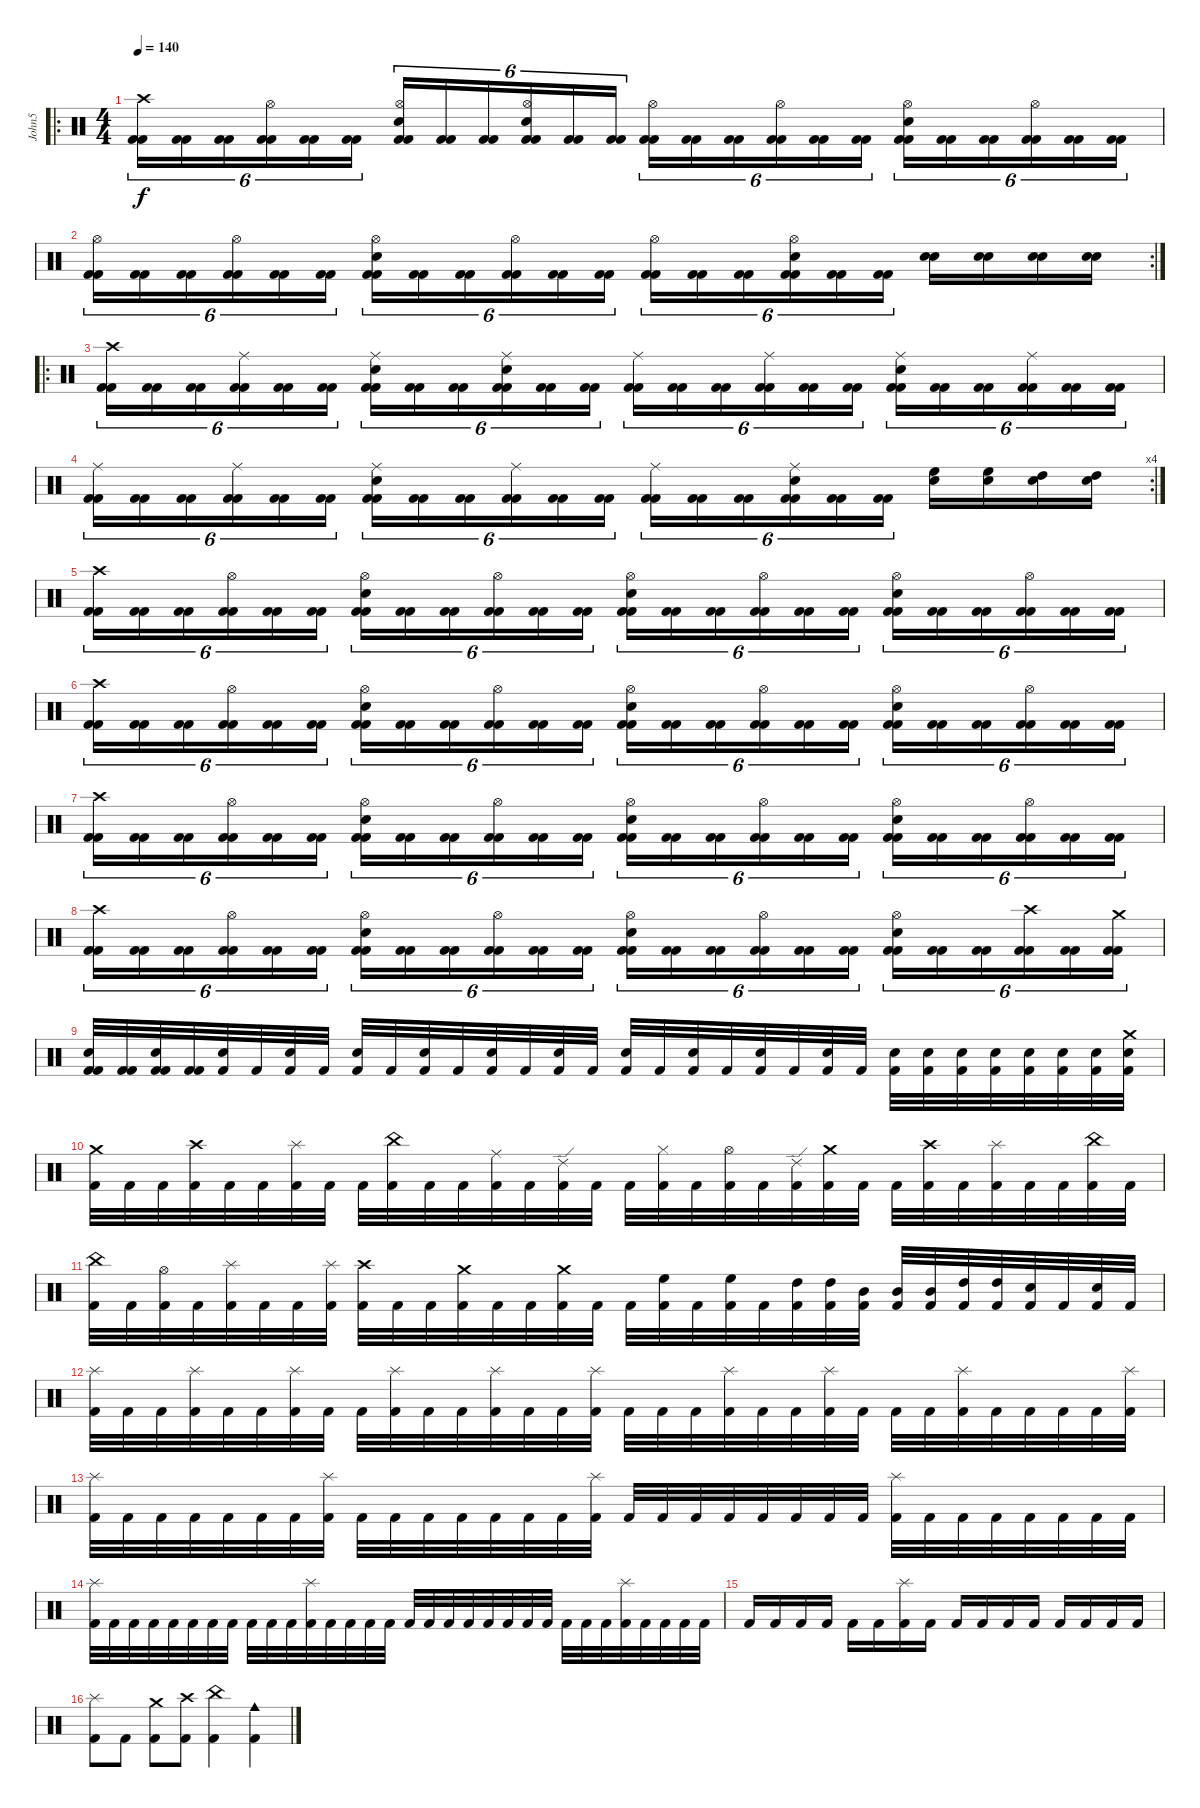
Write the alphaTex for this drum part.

\track ("John5" "John5") {instrument percussion}
\staff {score}
\articulation defaults
\ro
\ts (4 4)
\tempo 140
\clef neutral
\ks c
("Crash high (hit)" "Kick (hit) 2" "Kick (hit) 2").16{tu (6 4) dy f} ("Kick (hit) 2" "Kick (hit) 2").16{tu (6 4)} ("Kick (hit) 2" "Kick (hit) 2").16{tu (6 4)} ("Hi-Hat (open)" "Kick (hit) 2" "Kick (hit) 2").16{tu (6 4)} ("Kick (hit) 2" "Kick (hit) 2").16{tu (6 4)} ("Kick (hit) 2" "Kick (hit) 2").16{tu (6 4)} ("Hi-Hat (open)" "Electric Snare (hit)" "Kick (hit) 2" "Kick (hit) 2").16{tu (6 4)} ("Kick (hit) 2" "Kick (hit) 2").16{tu (6 4)} ("Kick (hit) 2" "Kick (hit) 2").16{tu (6 4)} ("Hi-Hat (open)" "Electric Snare (hit)" "Kick (hit) 2" "Kick (hit) 2").16{tu (6 4)} ("Kick (hit) 2" "Kick (hit) 2").16{tu (6 4)} ("Kick (hit) 2" "Kick (hit) 2").16{tu (6 4)} ("Hi-Hat (open)" "Kick (hit) 2" "Kick (hit) 2").16{tu (6 4)} ("Kick (hit) 2" "Kick (hit) 2").16{tu (6 4)} ("Kick (hit) 2" "Kick (hit) 2").16{tu (6 4)} ("Hi-Hat (open)" "Kick (hit) 2" "Kick (hit) 2").16{tu (6 4)} ("Kick (hit) 2" "Kick (hit) 2").16{tu (6 4)} ("Kick (hit) 2" "Kick (hit) 2").16{tu (6 4)} ("Hi-Hat (open)" "Electric Snare (hit)" "Kick (hit) 2" "Kick (hit) 2").16{tu (6 4)} ("Kick (hit) 2" "Kick (hit) 2").16{tu (6 4)} ("Kick (hit) 2" "Kick (hit) 2").16{tu (6 4)} ("Hi-Hat (open)" "Kick (hit) 2" "Kick (hit) 2").16{tu (6 4)} ("Kick (hit) 2" "Kick (hit) 2").16{tu (6 4)} ("Kick (hit) 2" "Kick (hit) 2").16{tu (6 4)} |
\rc 2
("Hi-Hat (open)" "Kick (hit) 2" "Kick (hit) 2").16{tu (6 4)} ("Kick (hit) 2" "Kick (hit) 2").16{tu (6 4)} ("Kick (hit) 2" "Kick (hit) 2").16{tu (6 4)} ("Hi-Hat (open)" "Kick (hit) 2" "Kick (hit) 2").16{tu (6 4)} ("Kick (hit) 2" "Kick (hit) 2").16{tu (6 4)} ("Kick (hit) 2" "Kick (hit) 2").16{tu (6 4)} ("Hi-Hat (open)" "Electric Snare (hit)" "Kick (hit) 2" "Kick (hit) 2").16{tu (6 4)} ("Kick (hit) 2" "Kick (hit) 2").16{tu (6 4)} ("Kick (hit) 2" "Kick (hit) 2").16{tu (6 4)} ("Hi-Hat (open)" "Kick (hit) 2" "Kick (hit) 2").16{tu (6 4)} ("Kick (hit) 2" "Kick (hit) 2").16{tu (6 4)} ("Kick (hit) 2" "Kick (hit) 2").16{tu (6 4)} ("Hi-Hat (open)" "Kick (hit) 2" "Kick (hit) 2").16{tu (6 4)} ("Kick (hit) 2" "Kick (hit) 2").16{tu (6 4)} ("Kick (hit) 2" "Kick (hit) 2").16{tu (6 4)} ("Hi-Hat (open)" "Electric Snare (hit)" "Kick (hit) 2" "Kick (hit) 2").16{tu (6 4)} ("Kick (hit) 2" "Kick (hit) 2").16{tu (6 4)} ("Kick (hit) 2" "Kick (hit) 2").16{tu (6 4)} ("Electric Snare (hit)" "Snare (hit)").16 ("Electric Snare (hit)" "Snare (hit)").16 ("Electric Snare (hit)" "Snare (hit)").16 ("Electric Snare (hit)" "Snare (hit)").16 |
\ro
("Crash high (hit)" "Kick (hit) 2" "Kick (hit) 2").16{tu (6 4)} ("Kick (hit) 2" "Kick (hit) 2").16{tu (6 4)} ("Kick (hit) 2" "Kick (hit) 2").16{tu (6 4)} ("Ride (middle)" "Kick (hit) 2" "Kick (hit) 2").16{tu (6 4)} ("Kick (hit) 2" "Kick (hit) 2").16{tu (6 4)} ("Kick (hit) 2" "Kick (hit) 2").16{tu (6 4)} ("Ride (middle)" "Electric Snare (hit)" "Kick (hit) 2" "Kick (hit) 2").16{tu (6 4)} ("Kick (hit) 2" "Kick (hit) 2").16{tu (6 4)} ("Kick (hit) 2" "Kick (hit) 2").16{tu (6 4)} ("Ride (middle)" "Electric Snare (hit)" "Kick (hit) 2" "Kick (hit) 2").16{tu (6 4)} ("Kick (hit) 2" "Kick (hit) 2").16{tu (6 4)} ("Kick (hit) 2" "Kick (hit) 2").16{tu (6 4)} ("Ride (middle)" "Kick (hit) 2" "Kick (hit) 2").16{tu (6 4)} ("Kick (hit) 2" "Kick (hit) 2").16{tu (6 4)} ("Kick (hit) 2" "Kick (hit) 2").16{tu (6 4)} ("Ride (middle)" "Kick (hit) 2" "Kick (hit) 2").16{tu (6 4)} ("Kick (hit) 2" "Kick (hit) 2").16{tu (6 4)} ("Kick (hit) 2" "Kick (hit) 2").16{tu (6 4)} ("Ride (middle)" "Electric Snare (hit)" "Kick (hit) 2" "Kick (hit) 2").16{tu (6 4)} ("Kick (hit) 2" "Kick (hit) 2").16{tu (6 4)} ("Kick (hit) 2" "Kick (hit) 2").16{tu (6 4)} ("Ride (middle)" "Kick (hit) 2" "Kick (hit) 2").16{tu (6 4)} ("Kick (hit) 2" "Kick (hit) 2").16{tu (6 4)} ("Kick (hit) 2" "Kick (hit) 2").16{tu (6 4)} |
\rc 4
("Ride (middle)" "Kick (hit) 2" "Kick (hit) 2").16{tu (6 4)} ("Kick (hit) 2" "Kick (hit) 2").16{tu (6 4)} ("Kick (hit) 2" "Kick (hit) 2").16{tu (6 4)} ("Ride (middle)" "Kick (hit) 2" "Kick (hit) 2").16{tu (6 4)} ("Kick (hit) 2" "Kick (hit) 2").16{tu (6 4)} ("Kick (hit) 2" "Kick (hit) 2").16{tu (6 4)} ("Ride (middle)" "Electric Snare (hit)" "Kick (hit) 2" "Kick (hit) 2").16{tu (6 4)} ("Kick (hit) 2" "Kick (hit) 2").16{tu (6 4)} ("Kick (hit) 2" "Kick (hit) 2").16{tu (6 4)} ("Ride (middle)" "Kick (hit) 2" "Kick (hit) 2").16{tu (6 4)} ("Kick (hit) 2" "Kick (hit) 2").16{tu (6 4)} ("Kick (hit) 2" "Kick (hit) 2").16{tu (6 4)} ("Ride (middle)" "Kick (hit) 2" "Kick (hit) 2").16{tu (6 4)} ("Kick (hit) 2" "Kick (hit) 2").16{tu (6 4)} ("Kick (hit) 2" "Kick (hit) 2").16{tu (6 4)} ("Ride (middle)" "Electric Snare (hit)" "Kick (hit) 2" "Kick (hit) 2").16{tu (6 4)} ("Kick (hit) 2" "Kick (hit) 2").16{tu (6 4)} ("Kick (hit) 2" "Kick (hit) 2").16{tu (6 4)} ("High Floor Tom (hit)" "Snare (hit)").16 ("High Floor Tom (hit)" "Snare (hit)").16 ("High Tom (hit)" "Snare (hit)").16 ("High Tom (hit)" "Snare (hit)").16 |
("Crash high (hit)" "Kick (hit) 2" "Kick (hit) 2").16{tu (6 4)} ("Kick (hit) 2" "Kick (hit) 2").16{tu (6 4)} ("Kick (hit) 2" "Kick (hit) 2").16{tu (6 4)} ("Hi-Hat (open)" "Kick (hit) 2" "Kick (hit) 2").16{tu (6 4)} ("Kick (hit) 2" "Kick (hit) 2").16{tu (6 4)} ("Kick (hit) 2" "Kick (hit) 2").16{tu (6 4)} ("Hi-Hat (open)" "Electric Snare (hit)" "Kick (hit) 2" "Kick (hit) 2").16{tu (6 4)} ("Kick (hit) 2" "Kick (hit) 2").16{tu (6 4)} ("Kick (hit) 2" "Kick (hit) 2").16{tu (6 4)} ("Hi-Hat (open)" "Kick (hit) 2" "Kick (hit) 2").16{tu (6 4)} ("Kick (hit) 2" "Kick (hit) 2").16{tu (6 4)} ("Kick (hit) 2" "Kick (hit) 2").16{tu (6 4)} ("Hi-Hat (open)" "Electric Snare (hit)" "Kick (hit) 2" "Kick (hit) 2").16{tu (6 4)} ("Kick (hit) 2" "Kick (hit) 2").16{tu (6 4)} ("Kick (hit) 2" "Kick (hit) 2").16{tu (6 4)} ("Hi-Hat (open)" "Kick (hit) 2" "Kick (hit) 2").16{tu (6 4)} ("Kick (hit) 2" "Kick (hit) 2").16{tu (6 4)} ("Kick (hit) 2" "Kick (hit) 2").16{tu (6 4)} ("Hi-Hat (open)" "Electric Snare (hit)" "Kick (hit) 2" "Kick (hit) 2").16{tu (6 4)} ("Kick (hit) 2" "Kick (hit) 2").16{tu (6 4)} ("Kick (hit) 2" "Kick (hit) 2").16{tu (6 4)} ("Hi-Hat (open)" "Kick (hit) 2" "Kick (hit) 2").16{tu (6 4)} ("Kick (hit) 2" "Kick (hit) 2").16{tu (6 4)} ("Kick (hit) 2" "Kick (hit) 2").16{tu (6 4)} |
("Crash high (hit)" "Kick (hit) 2" "Kick (hit) 2").16{tu (6 4)} ("Kick (hit) 2" "Kick (hit) 2").16{tu (6 4)} ("Kick (hit) 2" "Kick (hit) 2").16{tu (6 4)} ("Hi-Hat (open)" "Kick (hit) 2" "Kick (hit) 2").16{tu (6 4)} ("Kick (hit) 2" "Kick (hit) 2").16{tu (6 4)} ("Kick (hit) 2" "Kick (hit) 2").16{tu (6 4)} ("Hi-Hat (open)" "Electric Snare (hit)" "Kick (hit) 2" "Kick (hit) 2").16{tu (6 4)} ("Kick (hit) 2" "Kick (hit) 2").16{tu (6 4)} ("Kick (hit) 2" "Kick (hit) 2").16{tu (6 4)} ("Hi-Hat (open)" "Kick (hit) 2" "Kick (hit) 2").16{tu (6 4)} ("Kick (hit) 2" "Kick (hit) 2").16{tu (6 4)} ("Kick (hit) 2" "Kick (hit) 2").16{tu (6 4)} ("Hi-Hat (open)" "Electric Snare (hit)" "Kick (hit) 2" "Kick (hit) 2").16{tu (6 4)} ("Kick (hit) 2" "Kick (hit) 2").16{tu (6 4)} ("Kick (hit) 2" "Kick (hit) 2").16{tu (6 4)} ("Hi-Hat (open)" "Kick (hit) 2" "Kick (hit) 2").16{tu (6 4)} ("Kick (hit) 2" "Kick (hit) 2").16{tu (6 4)} ("Kick (hit) 2" "Kick (hit) 2").16{tu (6 4)} ("Hi-Hat (open)" "Electric Snare (hit)" "Kick (hit) 2" "Kick (hit) 2").16{tu (6 4)} ("Kick (hit) 2" "Kick (hit) 2").16{tu (6 4)} ("Kick (hit) 2" "Kick (hit) 2").16{tu (6 4)} ("Hi-Hat (open)" "Kick (hit) 2" "Kick (hit) 2").16{tu (6 4)} ("Kick (hit) 2" "Kick (hit) 2").16{tu (6 4)} ("Kick (hit) 2" "Kick (hit) 2").16{tu (6 4)} |
("Crash high (hit)" "Kick (hit) 2" "Kick (hit) 2").16{tu (6 4)} ("Kick (hit) 2" "Kick (hit) 2").16{tu (6 4)} ("Kick (hit) 2" "Kick (hit) 2").16{tu (6 4)} ("Hi-Hat (open)" "Kick (hit) 2" "Kick (hit) 2").16{tu (6 4)} ("Kick (hit) 2" "Kick (hit) 2").16{tu (6 4)} ("Kick (hit) 2" "Kick (hit) 2").16{tu (6 4)} ("Hi-Hat (open)" "Electric Snare (hit)" "Kick (hit) 2" "Kick (hit) 2").16{tu (6 4)} ("Kick (hit) 2" "Kick (hit) 2").16{tu (6 4)} ("Kick (hit) 2" "Kick (hit) 2").16{tu (6 4)} ("Hi-Hat (open)" "Kick (hit) 2" "Kick (hit) 2").16{tu (6 4)} ("Kick (hit) 2" "Kick (hit) 2").16{tu (6 4)} ("Kick (hit) 2" "Kick (hit) 2").16{tu (6 4)} ("Hi-Hat (open)" "Electric Snare (hit)" "Kick (hit) 2" "Kick (hit) 2").16{tu (6 4)} ("Kick (hit) 2" "Kick (hit) 2").16{tu (6 4)} ("Kick (hit) 2" "Kick (hit) 2").16{tu (6 4)} ("Hi-Hat (open)" "Kick (hit) 2" "Kick (hit) 2").16{tu (6 4)} ("Kick (hit) 2" "Kick (hit) 2").16{tu (6 4)} ("Kick (hit) 2" "Kick (hit) 2").16{tu (6 4)} ("Hi-Hat (open)" "Electric Snare (hit)" "Kick (hit) 2" "Kick (hit) 2").16{tu (6 4)} ("Kick (hit) 2" "Kick (hit) 2").16{tu (6 4)} ("Kick (hit) 2" "Kick (hit) 2").16{tu (6 4)} ("Hi-Hat (open)" "Kick (hit) 2" "Kick (hit) 2").16{tu (6 4)} ("Kick (hit) 2" "Kick (hit) 2").16{tu (6 4)} ("Kick (hit) 2" "Kick (hit) 2").16{tu (6 4)} |
("Crash high (hit)" "Kick (hit) 2" "Kick (hit) 2").16{tu (6 4)} ("Kick (hit) 2" "Kick (hit) 2").16{tu (6 4)} ("Kick (hit) 2" "Kick (hit) 2").16{tu (6 4)} ("Hi-Hat (open)" "Kick (hit) 2" "Kick (hit) 2").16{tu (6 4)} ("Kick (hit) 2" "Kick (hit) 2").16{tu (6 4)} ("Kick (hit) 2" "Kick (hit) 2").16{tu (6 4)} ("Hi-Hat (open)" "Electric Snare (hit)" "Kick (hit) 2" "Kick (hit) 2").16{tu (6 4)} ("Kick (hit) 2" "Kick (hit) 2").16{tu (6 4)} ("Kick (hit) 2" "Kick (hit) 2").16{tu (6 4)} ("Hi-Hat (open)" "Kick (hit) 2" "Kick (hit) 2").16{tu (6 4)} ("Kick (hit) 2" "Kick (hit) 2").16{tu (6 4)} ("Kick (hit) 2" "Kick (hit) 2").16{tu (6 4)} ("Hi-Hat (open)" "Electric Snare (hit)" "Kick (hit) 2" "Kick (hit) 2").16{tu (6 4)} ("Kick (hit) 2" "Kick (hit) 2").16{tu (6 4)} ("Kick (hit) 2" "Kick (hit) 2").16{tu (6 4)} ("Hi-Hat (open)" "Kick (hit) 2" "Kick (hit) 2").16{tu (6 4)} ("Kick (hit) 2" "Kick (hit) 2").16{tu (6 4)} ("Kick (hit) 2" "Kick (hit) 2").16{tu (6 4)} ("Hi-Hat (open)" "Electric Snare (hit)" "Kick (hit) 2" "Kick (hit) 2").16{tu (6 4)} ("Kick (hit) 2" "Kick (hit) 2").16{tu (6 4)} ("Kick (hit) 2" "Kick (hit) 2").16{tu (6 4)} ("Crash high (hit)" "Kick (hit) 2" "Kick (hit) 2").16{tu (6 4)} ("Kick (hit) 2" "Kick (hit) 2").16{tu (6 4)} ("Crash medium (hit)" "Kick (hit) 2" "Kick (hit) 2").16{tu (6 4)} |
("Electric Snare (hit)" "Kick (hit) 2" "Kick (hit) 2").32 ("Kick (hit) 2" "Kick (hit) 2").32 ("Electric Snare (hit)" "Kick (hit) 2" "Kick (hit) 2").32 ("Kick (hit) 2" "Kick (hit) 2").32 ("Electric Snare (hit)" "Kick (hit) 2").32 "Kick (hit) 2".32 ("Electric Snare (hit)" "Kick (hit) 2").32 "Kick (hit) 2".32 ("Electric Snare (hit)" "Kick (hit) 2").32 "Kick (hit) 2".32 ("Electric Snare (hit)" "Kick (hit) 2").32 "Kick (hit) 2".32 ("Electric Snare (hit)" "Kick (hit) 2").32 "Kick (hit) 2".32 ("Electric Snare (hit)" "Kick (hit) 2").32 "Kick (hit) 2".32 ("Electric Snare (hit)" "Kick (hit) 2").32 "Kick (hit) 2".32 ("Electric Snare (hit)" "Kick (hit) 2").32 "Kick (hit) 2".32 ("Electric Snare (hit)" "Kick (hit) 2").32 "Kick (hit) 2".32 ("Electric Snare (hit)" "Kick (hit) 2").32 "Kick (hit) 2".32 ("Electric Snare (hit)" "Kick (hit) 2").32 ("Electric Snare (hit)" "Kick (hit) 2").32 ("Electric Snare (hit)" "Kick (hit) 2").32 ("Electric Snare (hit)" "Kick (hit) 2").32 ("Electric Snare (hit)" "Kick (hit) 2").32 ("Electric Snare (hit)" "Kick (hit) 2").32 ("Electric Snare (hit)" "Kick (hit) 2").32 ("Crash medium (hit)" "Electric Snare (hit)" "Kick (hit) 2").32 |
("Crash medium (hit)" "Kick (hit) 2").32 "Kick (hit) 2".32 "Kick (hit) 2".32 ("Crash high (hit)" "Kick (hit) 2").32 "Kick (hit) 2".32 "Kick (hit) 2".32 ("Splash (hit)" "Kick (hit) 2").32 "Kick (hit) 2".32 "Kick (hit) 2".32 ("China (hit)" "Kick (hit) 2").32 "Kick (hit) 2".32 "Kick (hit) 2".32 ("Ride (middle)" "Kick (hit) 2").32 "Kick (hit) 2".32 ("Ride (edge) 2" "Kick (hit) 2").32 "Kick (hit) 2".32 "Kick (hit) 2".32 ("Hi-Hat (closed)" "Kick (hit) 2").32 "Kick (hit) 2".32 ("Hi-Hat (open)" "Kick (hit) 2").32 "Kick (hit) 2".32 ("Ride (edge) 2" "Kick (hit) 2").32 ("Crash medium (hit)" "Kick (hit) 2").32 "Kick (hit) 2".32 "Kick (hit) 2".32 ("Crash high (hit)" "Kick (hit) 2").32 "Kick (hit) 2".32 ("Splash (hit)" "Kick (hit) 2").32 "Kick (hit) 2".32 "Kick (hit) 2".32 ("China (hit)" "Kick (hit) 2").32 "Kick (hit) 2".32 |
("China (hit)" "Kick (hit) 2").32 "Kick (hit) 2".32 ("Hi-Hat (open)" "Kick (hit) 2").32 "Kick (hit) 2".32 ("Splash (hit)" "Kick (hit) 2").32 "Kick (hit) 2".32 "Kick (hit) 2".32 ("Splash (hit)" "Kick (hit) 2").32 ("Crash high (hit)" "Kick (hit) 2").32 "Kick (hit) 2".32 "Kick (hit) 2".32 ("Crash medium (hit)" "Kick (hit) 2").32 "Kick (hit) 2".32 "Kick (hit) 2".32 ("Crash medium (hit)" "Kick (hit) 2").32 "Kick (hit) 2".32 "Kick (hit) 2".32 ("High Floor Tom (hit)" "Kick (hit) 2").32 "Kick (hit) 2".32 ("High Floor Tom (hit)" "Kick (hit) 2").32 "Kick (hit) 2".32 ("High Tom (hit)" "Kick (hit) 2").32 ("High Tom (hit)" "Kick (hit) 2").32 ("Mid Tom (hit)" "Kick (hit) 2").32 ("Mid Tom (hit)" "Kick (hit) 2").32 ("Mid Tom (hit)" "Kick (hit) 2").32 ("High Tom (hit)" "Kick (hit) 2").32 ("High Tom (hit)" "Kick (hit) 2").32 ("Electric Snare (hit)" "Kick (hit) 2").32 "Kick (hit) 2".32 ("Electric Snare (hit)" "Kick (hit) 2").32 "Kick (hit) 2".32 |
("Splash (hit)" "Kick (hit) 2").32 "Kick (hit) 2".32 "Kick (hit) 2".32 ("Splash (hit)" "Kick (hit) 2").32 "Kick (hit) 2".32 "Kick (hit) 2".32 ("Splash (hit)" "Kick (hit) 2").32 "Kick (hit) 2".32 "Kick (hit) 2".32 ("Splash (hit)" "Kick (hit) 2").32 "Kick (hit) 2".32 "Kick (hit) 2".32 ("Splash (hit)" "Kick (hit) 2").32 "Kick (hit) 2".32 "Kick (hit) 2".32 ("Splash (hit)" "Kick (hit) 2").32 "Kick (hit) 2".32 "Kick (hit) 2".32 "Kick (hit) 2".32 ("Splash (hit)" "Kick (hit) 2").32 "Kick (hit) 2".32 "Kick (hit) 2".32 ("Splash (hit)" "Kick (hit) 2").32 "Kick (hit) 2".32 "Kick (hit) 2".32 "Kick (hit) 2".32 ("Splash (hit)" "Kick (hit) 2").32 "Kick (hit) 2".32 "Kick (hit) 2".32 "Kick (hit) 2".32 "Kick (hit) 2".32 ("Splash (hit)" "Kick (hit) 2").32 |
("Splash (hit)" "Kick (hit) 2").32 "Kick (hit) 2".32 "Kick (hit) 2".32 "Kick (hit) 2".32 "Kick (hit) 2".32 "Kick (hit) 2".32 "Kick (hit) 2".32 ("Splash (hit)" "Kick (hit) 2").32 "Kick (hit) 2".32 "Kick (hit) 2".32 "Kick (hit) 2".32 "Kick (hit) 2".32 "Kick (hit) 2".32 "Kick (hit) 2".32 "Kick (hit) 2".32 ("Splash (hit)" "Kick (hit) 2").32 "Kick (hit) 2".32 "Kick (hit) 2".32 "Kick (hit) 2".32 "Kick (hit) 2".32 "Kick (hit) 2".32 "Kick (hit) 2".32 "Kick (hit) 2".32 "Kick (hit) 2".32 ("Splash (hit)" "Kick (hit) 2").32 "Kick (hit) 2".32 "Kick (hit) 2".32 "Kick (hit) 2".32 "Kick (hit) 2".32 "Kick (hit) 2".32 "Kick (hit) 2".32 "Kick (hit) 2".32 |
("Splash (hit)" "Kick (hit) 2").32 "Kick (hit) 2".32 "Kick (hit) 2".32 "Kick (hit) 2".32 "Kick (hit) 2".32 "Kick (hit) 2".32 "Kick (hit) 2".32 "Kick (hit) 2".32 "Kick (hit) 2".32 "Kick (hit) 2".32 "Kick (hit) 2".32 ("Splash (hit)" "Kick (hit) 2").32 "Kick (hit) 2".32 "Kick (hit) 2".32 "Kick (hit) 2".32 "Kick (hit) 2".32 "Kick (hit) 2".32 "Kick (hit) 2".32 "Kick (hit) 2".32 "Kick (hit) 2".32 "Kick (hit) 2".32 "Kick (hit) 2".32 "Kick (hit) 2".32 "Kick (hit) 2".32 "Kick (hit) 2".32 "Kick (hit) 2".32 "Kick (hit) 2".32 ("Splash (hit)" "Kick (hit) 2").32 "Kick (hit) 2".32 "Kick (hit) 2".32 "Kick (hit) 2".32 "Kick (hit) 2".32 |
"Kick (hit) 2".16 "Kick (hit) 2".16 "Kick (hit) 2".16 "Kick (hit) 2".16 "Kick (hit) 2".16 "Kick (hit) 2".16 ("Splash (hit)" "Kick (hit) 2").16 "Kick (hit) 2".16 "Kick (hit) 2".16 "Kick (hit) 2".16 "Kick (hit) 2".16 "Kick (hit) 2".16 "Kick (hit) 2".16 "Kick (hit) 2".16 "Kick (hit) 2".16 "Kick (hit) 2".16 |
("Splash (hit)" "Kick (hit) 2").8 "Kick (hit) 2".8 ("Crash medium (hit)" "Kick (hit) 2").8 ("Crash high (hit)" "Kick (hit) 2").8 ("China (hit)" "Kick (hit) 2").4 ("Cowbell medium (hit)" "Kick (hit) 2").4
